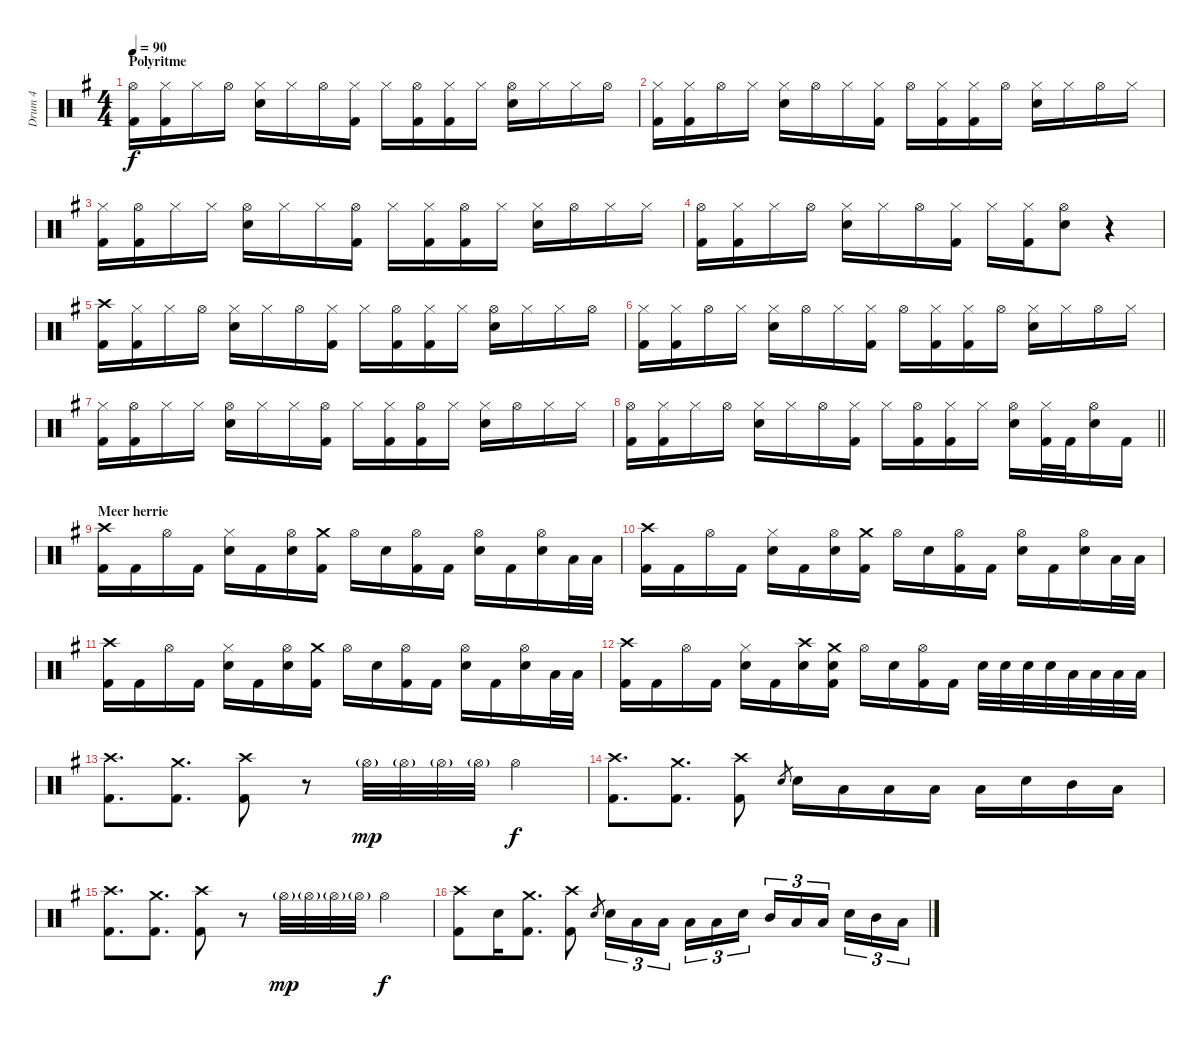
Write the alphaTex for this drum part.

\track ("Drum 4" "Drum 4") {instrument percussion}
\staff {score}
\articulation defaults
\ts (4 4)
\section ("" "Polyritme")
\tempo 90
\clef neutral
\ks eminor
("Hi-Hat (open)" "Kick (hit) 2").16{dy f} ("Hi-Hat (closed)" "Kick (hit) 2").16 "Hi-Hat (closed)".16 "Hi-Hat (open)".16 ("Hi-Hat (closed)" "Snare (hit) 2").16 "Hi-Hat (closed)".16 "Hi-Hat (open)".16 ("Hi-Hat (closed)" "Kick (hit) 2").16 "Hi-Hat (closed)".16 ("Hi-Hat (open)" "Kick (hit) 2").16 ("Hi-Hat (closed)" "Kick (hit) 2").16 "Hi-Hat (closed)".16 ("Hi-Hat (open)" "Snare (hit) 2").16 "Hi-Hat (closed)".16 "Hi-Hat (closed)".16 "Hi-Hat (open)".16 |
("Hi-Hat (closed)" "Kick (hit) 2").16 ("Hi-Hat (closed)" "Kick (hit) 2").16 "Hi-Hat (open)".16 "Hi-Hat (closed)".16 ("Hi-Hat (closed)" "Snare (hit) 2").16 "Hi-Hat (open)".16 "Hi-Hat (closed)".16 ("Hi-Hat (closed)" "Kick (hit) 2").16 "Hi-Hat (open)".16 ("Hi-Hat (closed)" "Kick (hit) 2").16 ("Hi-Hat (closed)" "Kick (hit) 2").16 "Hi-Hat (open)".16 ("Hi-Hat (closed)" "Snare (hit) 2").16 "Hi-Hat (closed)".16 "Hi-Hat (open)".16 "Hi-Hat (closed)".16 |
("Hi-Hat (closed)" "Kick (hit) 2").16 ("Hi-Hat (open)" "Kick (hit) 2").16 "Hi-Hat (closed)".16 "Hi-Hat (closed)".16 ("Hi-Hat (open)" "Snare (hit) 2").16 "Hi-Hat (closed)".16 "Hi-Hat (closed)".16 ("Hi-Hat (open)" "Kick (hit) 2").16 "Hi-Hat (closed)".16 ("Hi-Hat (closed)" "Kick (hit) 2").16 ("Hi-Hat (open)" "Kick (hit) 2").16 "Hi-Hat (closed)".16 ("Hi-Hat (closed)" "Snare (hit) 2").16 "Hi-Hat (open)".16 "Hi-Hat (closed)".16 "Hi-Hat (closed)".16 |
("Hi-Hat (open)" "Kick (hit) 2").16 ("Hi-Hat (closed)" "Kick (hit) 2").16 "Hi-Hat (closed)".16 "Hi-Hat (open)".16 ("Hi-Hat (closed)" "Snare (hit) 2").16 "Hi-Hat (closed)".16 "Hi-Hat (open)".16 ("Hi-Hat (closed)" "Kick (hit) 2").16 "Hi-Hat (closed)".16 ("Hi-Hat (closed)" "Kick (hit) 2").16 ("Hi-Hat (open)" "Snare (hit) 2").8 r.4 |
("Crash high (hit)" "Kick (hit) 2").16 ("Hi-Hat (closed)" "Kick (hit) 2").16 "Hi-Hat (closed)".16 "Hi-Hat (open)".16 ("Hi-Hat (closed)" "Snare (hit) 2").16 "Hi-Hat (closed)".16 "Hi-Hat (open)".16 ("Hi-Hat (closed)" "Kick (hit) 2").16 "Hi-Hat (closed)".16 ("Hi-Hat (open)" "Kick (hit) 2").16 ("Hi-Hat (closed)" "Kick (hit) 2").16 "Hi-Hat (closed)".16 ("Hi-Hat (open)" "Snare (hit) 2").16 "Hi-Hat (closed)".16 "Hi-Hat (closed)".16 "Hi-Hat (open)".16 |
("Hi-Hat (closed)" "Kick (hit) 2").16 ("Hi-Hat (closed)" "Kick (hit) 2").16 "Hi-Hat (open)".16 "Hi-Hat (closed)".16 ("Hi-Hat (closed)" "Snare (hit) 2").16 "Hi-Hat (open)".16 "Hi-Hat (closed)".16 ("Hi-Hat (closed)" "Kick (hit) 2").16 "Hi-Hat (open)".16 ("Hi-Hat (closed)" "Kick (hit) 2").16 ("Hi-Hat (closed)" "Kick (hit) 2").16 "Hi-Hat (open)".16 ("Hi-Hat (closed)" "Snare (hit) 2").16 "Hi-Hat (closed)".16 "Hi-Hat (open)".16 "Hi-Hat (closed)".16 |
("Hi-Hat (closed)" "Kick (hit) 2").16 ("Hi-Hat (open)" "Kick (hit) 2").16 "Hi-Hat (closed)".16 "Hi-Hat (closed)".16 ("Hi-Hat (open)" "Snare (hit) 2").16 "Hi-Hat (closed)".16 "Hi-Hat (closed)".16 ("Hi-Hat (open)" "Kick (hit) 2").16 "Hi-Hat (closed)".16 ("Hi-Hat (closed)" "Kick (hit) 2").16 ("Hi-Hat (open)" "Kick (hit) 2").16 "Hi-Hat (closed)".16 ("Hi-Hat (closed)" "Snare (hit) 2").16 "Hi-Hat (open)".16 "Hi-Hat (closed)".16 "Hi-Hat (closed)".16 |
\barLineRight lightlight
("Hi-Hat (open)" "Kick (hit) 2").16 ("Hi-Hat (closed)" "Kick (hit) 2").16 "Hi-Hat (closed)".16 "Hi-Hat (open)".16 ("Hi-Hat (closed)" "Snare (hit) 2").16 "Hi-Hat (closed)".16 "Hi-Hat (open)".16 ("Hi-Hat (closed)" "Kick (hit) 2").16 "Hi-Hat (closed)".16 ("Hi-Hat (open)" "Kick (hit) 2").16 ("Hi-Hat (closed)" "Kick (hit) 2").16 "Hi-Hat (closed)".16 ("Hi-Hat (open)" "Snare (hit) 2").16 ("Hi-Hat (closed)" "Kick (hit) 2").32 "Kick (hit) 2".32 ("Hi-Hat (open)" "Snare (hit) 2").16 "Kick (hit) 2".16 |
\section ("" "Meer herrie")
("Crash high (hit)" "Kick (hit) 2").16 "Kick (hit) 2".16 "Hi-Hat (open)".16 "Kick (hit) 2".16 ("Hi-Hat (closed)" "Snare (hit) 2").16 "Kick (hit) 2".16 ("Hi-Hat (open)" "Snare (hit) 2").16 ("Crash medium (hit)" "Kick (hit) 2").16 "Hi-Hat (open)".16 "Snare (hit) 2".16 ("Hi-Hat (open)" "Kick (hit) 2").16 "Kick (hit) 2".16 ("Hi-Hat (open)" "Snare (hit) 2").16 "Kick (hit) 2".16 ("Hi-Hat (open)" "Snare (hit) 2").16 "Low Tom (hit)".32 "Low Tom (hit)".32 |
("Crash high (hit)" "Kick (hit) 2").16 "Kick (hit) 2".16 "Hi-Hat (open)".16 "Kick (hit) 2".16 ("Hi-Hat (closed)" "Snare (hit) 2").16 "Kick (hit) 2".16 ("Hi-Hat (open)" "Snare (hit) 2").16 ("Crash medium (hit)" "Kick (hit) 2").16 "Hi-Hat (open)".16 "Snare (hit) 2".16 ("Hi-Hat (open)" "Kick (hit) 2").16 "Kick (hit) 2".16 ("Hi-Hat (open)" "Snare (hit) 2").16 "Kick (hit) 2".16 ("Hi-Hat (open)" "Snare (hit) 2").16 "Low Tom (hit)".32 "Low Tom (hit)".32 |
("Crash high (hit)" "Kick (hit) 2").16 "Kick (hit) 2".16 "Hi-Hat (open)".16 "Kick (hit) 2".16 ("Hi-Hat (closed)" "Snare (hit) 2").16 "Kick (hit) 2".16 ("Hi-Hat (open)" "Snare (hit) 2").16 ("Crash medium (hit)" "Kick (hit) 2").16 "Hi-Hat (open)".16 "Snare (hit) 2".16 ("Hi-Hat (open)" "Kick (hit) 2").16 "Kick (hit) 2".16 ("Hi-Hat (open)" "Snare (hit) 2").16 "Kick (hit) 2".16 ("Hi-Hat (open)" "Snare (hit) 2").16 "Low Tom (hit)".32 "Low Tom (hit)".32 |
("Crash high (hit)" "Kick (hit) 2").16 "Kick (hit) 2".16 "Hi-Hat (open)".16 "Kick (hit) 2".16 ("Hi-Hat (closed)" "Snare (hit) 2").16 "Kick (hit) 2".16 ("Crash high (hit)" "Snare (hit) 2").16 ("Crash medium (hit)" "Snare (hit) 2" "Kick (hit) 2").16 "Hi-Hat (open)".16 "Snare (hit) 2".16 ("Hi-Hat (open)" "Kick (hit) 2").16 "Kick (hit) 2".16 "Snare (hit) 2".32 "Snare (hit) 2".32 "Snare (hit) 2".32 "Snare (hit) 2".32 "Low Tom (hit)".32 "Low Tom (hit)".32 "Low Floor Tom (hit)".32 "Low Floor Tom (hit)".32 |
("Crash high (hit)" "Kick (hit) 2").8{d} ("Crash medium (hit)" "Kick (hit) 2").8{d} ("Crash high (hit)" "Kick (hit) 2").8 r.8 "Hi-Hat (open)"{g}.32{dy mp} "Hi-Hat (open)"{g}.32 "Hi-Hat (open)"{g}.32 "Hi-Hat (open)"{g}.32 "Hi-Hat (open)".4{dy f} |
("Crash high (hit)" "Kick (hit) 2").8{d} ("Crash medium (hit)" "Kick (hit) 2").8{d} ("Crash high (hit)" "Kick (hit) 2").8 "Snare (hit) 2".8{gr} "Snare (hit) 2".16 "Low Tom (hit)".16 "Low Tom (hit)".16 "Low Floor Tom (hit)".16 "Low Floor Tom (hit)".16 "Snare (hit) 2".16 "Mid Tom (hit)".16 "Low Tom (hit)".16 |
("Crash high (hit)" "Kick (hit) 2").8{d} ("Crash medium (hit)" "Kick (hit) 2").8{d} ("Crash high (hit)" "Kick (hit) 2").8 r.8 "Hi-Hat (open)"{g}.32{dy mp} "Hi-Hat (open)"{g}.32 "Hi-Hat (open)"{g}.32 "Hi-Hat (open)"{g}.32 "Hi-Hat (open)".4{dy f} |
("Crash high (hit)" "Kick (hit) 2").8 "Snare (hit) 2".16 ("Crash medium (hit)" "Kick (hit) 2").8{d} ("Crash high (hit)" "Kick (hit) 2").8 "Snare (hit) 2".8{gr} "Snare (hit) 2".16{tu (3 2)} "Low Tom (hit)".16{tu (3 2)} "Low Tom (hit)".16{tu (3 2) beam splitsecondary} "Low Floor Tom (hit)".16{tu (3 2)} "Low Floor Tom (hit)".16{tu (3 2)} "Snare (hit) 2".16{tu (3 2)} "Mid Tom (hit)".16{tu (3 2)} "Low Tom (hit)".16{tu (3 2)} "Low Floor Tom (hit)".16{tu (3 2) beam splitsecondary} "Snare (hit) 2".16{tu (3 2)} "Mid Tom (hit)".16{tu (3 2)} "Low Floor Tom (hit)".16{tu (3 2)}
